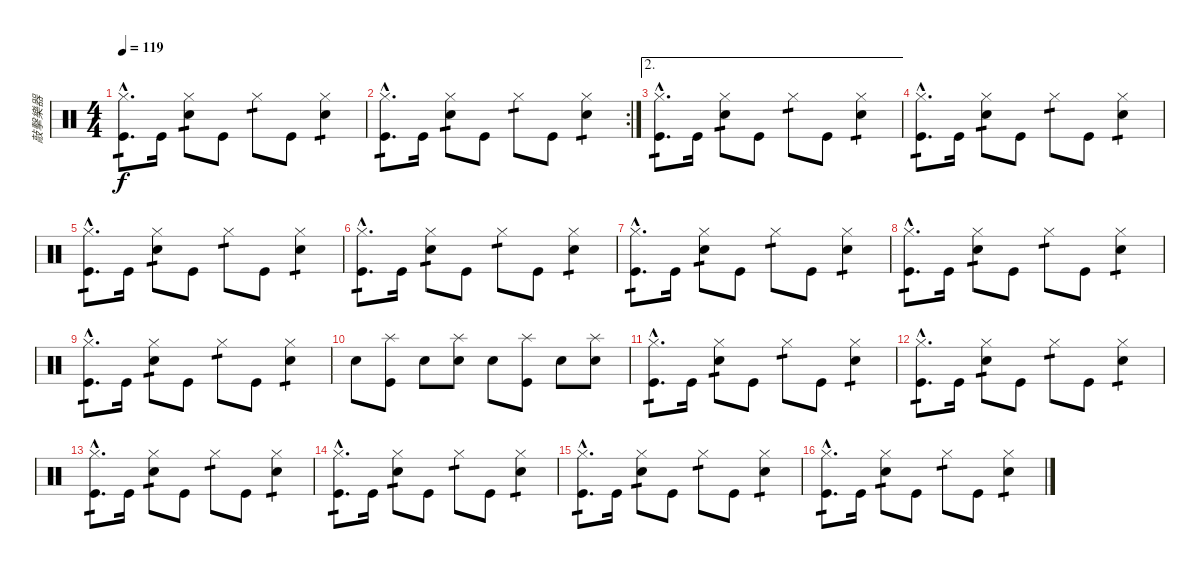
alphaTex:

\track ("敲擊樂器" "敲擊樂器") {instrument percussion}
\staff {score}
\articulation defaults
\ts (4 4)
\tempo 119
\clef neutral
\ks c
("Hi-Hat (closed)"{hac} "Kick (hit)"{hac}).8{d tp 1 dy f} "Kick (hit)".16 ("Hi-Hat (closed)" "Electric Snare (hit)").8{tp 1} "Kick (hit)".8 "Hi-Hat (closed)".8{tp 1} "Kick (hit)".8 ("Hi-Hat (closed)" "Electric Snare (hit)").4{tp 1} |
\rc 2
("Hi-Hat (closed)"{hac} "Kick (hit)"{hac}).8{d tp 1} "Kick (hit)".16 ("Hi-Hat (closed)" "Electric Snare (hit)").8{tp 1} "Kick (hit)".8 "Hi-Hat (closed)".8{tp 1} "Kick (hit)".8 ("Hi-Hat (closed)" "Electric Snare (hit)").4{tp 1} |
\ae 2
("Hi-Hat (closed)"{hac} "Kick (hit)"{hac}).8{d tp 1} "Kick (hit)".16 ("Hi-Hat (closed)" "Electric Snare (hit)").8{tp 1} "Kick (hit)".8 "Hi-Hat (closed)".8{tp 1} "Kick (hit)".8 ("Hi-Hat (closed)" "Electric Snare (hit)").4{tp 1} |
("Hi-Hat (closed)"{hac} "Kick (hit)"{hac}).8{d tp 1} "Kick (hit)".16 ("Hi-Hat (closed)" "Electric Snare (hit)").8{tp 1} "Kick (hit)".8 "Hi-Hat (closed)".8{tp 1} "Kick (hit)".8 ("Hi-Hat (closed)" "Electric Snare (hit)").4{tp 1} |
("Hi-Hat (closed)"{hac} "Kick (hit)"{hac}).8{d tp 1} "Kick (hit)".16 ("Hi-Hat (closed)" "Electric Snare (hit)").8{tp 1} "Kick (hit)".8 "Hi-Hat (closed)".8{tp 1} "Kick (hit)".8 ("Hi-Hat (closed)" "Electric Snare (hit)").4{tp 1} |
("Hi-Hat (closed)"{hac} "Kick (hit)"{hac}).8{d tp 1} "Kick (hit)".16 ("Hi-Hat (closed)" "Electric Snare (hit)").8{tp 1} "Kick (hit)".8 "Hi-Hat (closed)".8{tp 1} "Kick (hit)".8 ("Hi-Hat (closed)" "Electric Snare (hit)").4{tp 1} |
("Hi-Hat (closed)"{hac} "Kick (hit)"{hac}).8{d tp 1} "Kick (hit)".16 ("Hi-Hat (closed)" "Electric Snare (hit)").8{tp 1} "Kick (hit)".8 "Hi-Hat (closed)".8{tp 1} "Kick (hit)".8 ("Hi-Hat (closed)" "Electric Snare (hit)").4{tp 1} |
("Hi-Hat (closed)"{hac} "Kick (hit)"{hac}).8{d tp 1} "Kick (hit)".16 ("Hi-Hat (closed)" "Electric Snare (hit)").8{tp 1} "Kick (hit)".8 "Hi-Hat (closed)".8{tp 1} "Kick (hit)".8 ("Hi-Hat (closed)" "Electric Snare (hit)").4{tp 1} |
("Hi-Hat (closed)"{hac} "Kick (hit)"{hac}).8{d tp 1} "Kick (hit)".16 ("Hi-Hat (closed)" "Electric Snare (hit)").8{tp 1} "Kick (hit)".8 "Hi-Hat (closed)".8{tp 1} "Kick (hit)".8 ("Hi-Hat (closed)" "Electric Snare (hit)").4{tp 1} |
"Electric Snare (hit)".8 ("Splash (hit)" "Kick (hit)").8 "Electric Snare (hit)".8 ("Splash (hit)" "Electric Snare (hit)").8 "Electric Snare (hit)".8 ("Splash (hit)" "Kick (hit)").8 "Electric Snare (hit)".8 ("Splash (hit)" "Electric Snare (hit)").8 |
("Hi-Hat (closed)"{hac} "Kick (hit)"{hac}).8{d tp 1} "Kick (hit)".16 ("Hi-Hat (closed)" "Electric Snare (hit)").8{tp 1} "Kick (hit)".8 "Hi-Hat (closed)".8{tp 1} "Kick (hit)".8 ("Hi-Hat (closed)" "Electric Snare (hit)").4{tp 1} |
("Hi-Hat (closed)"{hac} "Kick (hit)"{hac}).8{d tp 1} "Kick (hit)".16 ("Hi-Hat (closed)" "Electric Snare (hit)").8{tp 1} "Kick (hit)".8 "Hi-Hat (closed)".8{tp 1} "Kick (hit)".8 ("Hi-Hat (closed)" "Electric Snare (hit)").4{tp 1} |
("Hi-Hat (closed)"{hac} "Kick (hit)"{hac}).8{d tp 1} "Kick (hit)".16 ("Hi-Hat (closed)" "Electric Snare (hit)").8{tp 1} "Kick (hit)".8 "Hi-Hat (closed)".8{tp 1} "Kick (hit)".8 ("Hi-Hat (closed)" "Electric Snare (hit)").4{tp 1} |
("Hi-Hat (closed)"{hac} "Kick (hit)"{hac}).8{d tp 1} "Kick (hit)".16 ("Hi-Hat (closed)" "Electric Snare (hit)").8{tp 1} "Kick (hit)".8 "Hi-Hat (closed)".8{tp 1} "Kick (hit)".8 ("Hi-Hat (closed)" "Electric Snare (hit)").4{tp 1} |
("Hi-Hat (closed)"{hac} "Kick (hit)"{hac}).8{d tp 1} "Kick (hit)".16 ("Hi-Hat (closed)" "Electric Snare (hit)").8{tp 1} "Kick (hit)".8 "Hi-Hat (closed)".8{tp 1} "Kick (hit)".8 ("Hi-Hat (closed)" "Electric Snare (hit)").4{tp 1} |
("Hi-Hat (closed)"{hac} "Kick (hit)"{hac}).8{d tp 1} "Kick (hit)".16 ("Hi-Hat (closed)" "Electric Snare (hit)").8{tp 1} "Kick (hit)".8 "Hi-Hat (closed)".8{tp 1} "Kick (hit)".8 ("Hi-Hat (closed)" "Electric Snare (hit)").4{tp 1}
